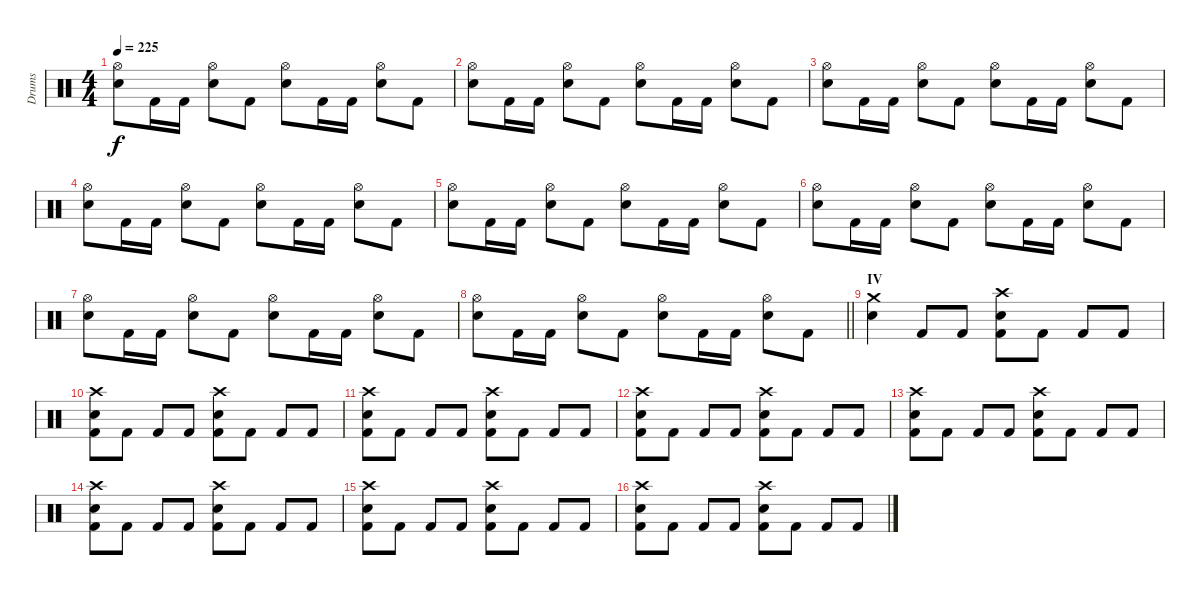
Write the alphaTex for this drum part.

\track ("Drums" "Drums") {instrument percussion}
\staff {score}
\articulation defaults
\ts (4 4)
\tempo 225
\clef neutral
\ks c
("Hi-Hat (open)" "Electric Snare (hit)").8{dy f} "Kick (hit) 2".16 "Kick (hit) 2".16 ("Hi-Hat (open)" "Electric Snare (hit)").8 "Kick (hit) 2".8 ("Hi-Hat (open)" "Electric Snare (hit)").8 "Kick (hit) 2".16 "Kick (hit) 2".16 ("Hi-Hat (open)" "Electric Snare (hit)").8 "Kick (hit) 2".8 |
("Hi-Hat (open)" "Electric Snare (hit)").8 "Kick (hit) 2".16 "Kick (hit) 2".16 ("Hi-Hat (open)" "Electric Snare (hit)").8 "Kick (hit) 2".8 ("Hi-Hat (open)" "Electric Snare (hit)").8 "Kick (hit) 2".16 "Kick (hit) 2".16 ("Hi-Hat (open)" "Electric Snare (hit)").8 "Kick (hit) 2".8 |
("Hi-Hat (open)" "Electric Snare (hit)").8 "Kick (hit) 2".16 "Kick (hit) 2".16 ("Hi-Hat (open)" "Electric Snare (hit)").8 "Kick (hit) 2".8 ("Hi-Hat (open)" "Electric Snare (hit)").8 "Kick (hit) 2".16 "Kick (hit) 2".16 ("Hi-Hat (open)" "Electric Snare (hit)").8 "Kick (hit) 2".8 |
("Hi-Hat (open)" "Electric Snare (hit)").8 "Kick (hit) 2".16 "Kick (hit) 2".16 ("Hi-Hat (open)" "Electric Snare (hit)").8 "Kick (hit) 2".8 ("Hi-Hat (open)" "Electric Snare (hit)").8 "Kick (hit) 2".16 "Kick (hit) 2".16 ("Hi-Hat (open)" "Electric Snare (hit)").8 "Kick (hit) 2".8 |
("Hi-Hat (open)" "Electric Snare (hit)").8 "Kick (hit) 2".16 "Kick (hit) 2".16 ("Hi-Hat (open)" "Electric Snare (hit)").8 "Kick (hit) 2".8 ("Hi-Hat (open)" "Electric Snare (hit)").8 "Kick (hit) 2".16 "Kick (hit) 2".16 ("Hi-Hat (open)" "Electric Snare (hit)").8 "Kick (hit) 2".8 |
("Hi-Hat (open)" "Electric Snare (hit)").8 "Kick (hit) 2".16 "Kick (hit) 2".16 ("Hi-Hat (open)" "Electric Snare (hit)").8 "Kick (hit) 2".8 ("Hi-Hat (open)" "Electric Snare (hit)").8 "Kick (hit) 2".16 "Kick (hit) 2".16 ("Hi-Hat (open)" "Electric Snare (hit)").8 "Kick (hit) 2".8 |
("Hi-Hat (open)" "Electric Snare (hit)").8 "Kick (hit) 2".16 "Kick (hit) 2".16 ("Hi-Hat (open)" "Electric Snare (hit)").8 "Kick (hit) 2".8 ("Hi-Hat (open)" "Electric Snare (hit)").8 "Kick (hit) 2".16 "Kick (hit) 2".16 ("Hi-Hat (open)" "Electric Snare (hit)").8 "Kick (hit) 2".8 |
\barLineRight lightlight
("Hi-Hat (open)" "Electric Snare (hit)").8 "Kick (hit) 2".16 "Kick (hit) 2".16 ("Hi-Hat (open)" "Electric Snare (hit)").8 "Kick (hit) 2".8 ("Hi-Hat (open)" "Electric Snare (hit)").8 "Kick (hit) 2".16 "Kick (hit) 2".16 ("Hi-Hat (open)" "Electric Snare (hit)").8 "Kick (hit) 2".8 |
\section ("" "IV")
("Crash medium (hit)" "Electric Snare (hit)").4 "Kick (hit) 2".8 "Kick (hit) 2".8 ("Crash high (hit)" "Electric Snare (hit)" "Kick (hit) 2").8 "Kick (hit) 2".8 "Kick (hit) 2".8 "Kick (hit) 2".8 |
("Crash high (hit)" "Electric Snare (hit)" "Kick (hit) 2").8 "Kick (hit) 2".8 "Kick (hit) 2".8 "Kick (hit) 2".8 ("Crash high (hit)" "Electric Snare (hit)" "Kick (hit) 2").8 "Kick (hit) 2".8 "Kick (hit) 2".8 "Kick (hit) 2".8 |
("Crash high (hit)" "Electric Snare (hit)" "Kick (hit) 2").8 "Kick (hit) 2".8 "Kick (hit) 2".8 "Kick (hit) 2".8 ("Crash high (hit)" "Electric Snare (hit)" "Kick (hit) 2").8 "Kick (hit) 2".8 "Kick (hit) 2".8 "Kick (hit) 2".8 |
("Crash high (hit)" "Electric Snare (hit)" "Kick (hit) 2").8 "Kick (hit) 2".8 "Kick (hit) 2".8 "Kick (hit) 2".8 ("Crash high (hit)" "Electric Snare (hit)" "Kick (hit) 2").8 "Kick (hit) 2".8 "Kick (hit) 2".8 "Kick (hit) 2".8 |
("Crash high (hit)" "Electric Snare (hit)" "Kick (hit) 2").8 "Kick (hit) 2".8 "Kick (hit) 2".8 "Kick (hit) 2".8 ("Crash high (hit)" "Electric Snare (hit)" "Kick (hit) 2").8 "Kick (hit) 2".8 "Kick (hit) 2".8 "Kick (hit) 2".8 |
("Crash high (hit)" "Electric Snare (hit)" "Kick (hit) 2").8 "Kick (hit) 2".8 "Kick (hit) 2".8 "Kick (hit) 2".8 ("Crash high (hit)" "Electric Snare (hit)" "Kick (hit) 2").8 "Kick (hit) 2".8 "Kick (hit) 2".8 "Kick (hit) 2".8 |
("Crash high (hit)" "Electric Snare (hit)" "Kick (hit) 2").8 "Kick (hit) 2".8 "Kick (hit) 2".8 "Kick (hit) 2".8 ("Crash high (hit)" "Electric Snare (hit)" "Kick (hit) 2").8 "Kick (hit) 2".8 "Kick (hit) 2".8 "Kick (hit) 2".8 |
("Crash high (hit)" "Electric Snare (hit)" "Kick (hit) 2").8 "Kick (hit) 2".8 "Kick (hit) 2".8 "Kick (hit) 2".8 ("Crash high (hit)" "Electric Snare (hit)" "Kick (hit) 2").8 "Kick (hit) 2".8 "Kick (hit) 2".8 "Kick (hit) 2".8
